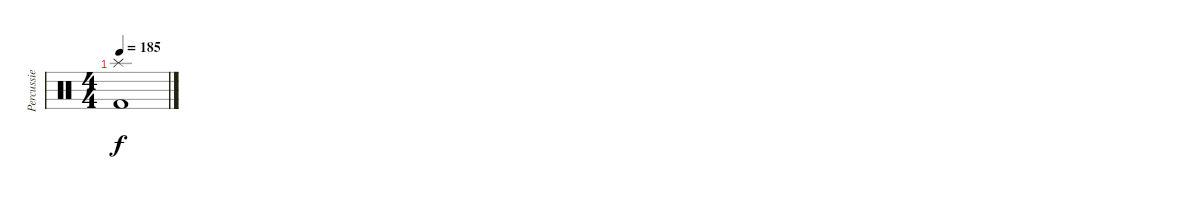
\track ("Percussie" "Percussie") {instrument percussion}
\staff {score}
\articulation defaults
\ts (4 4)
\tempo 185
\clef neutral
\ks c
("Splash (hit)" "Kick (hit) 2").1{dy f}
